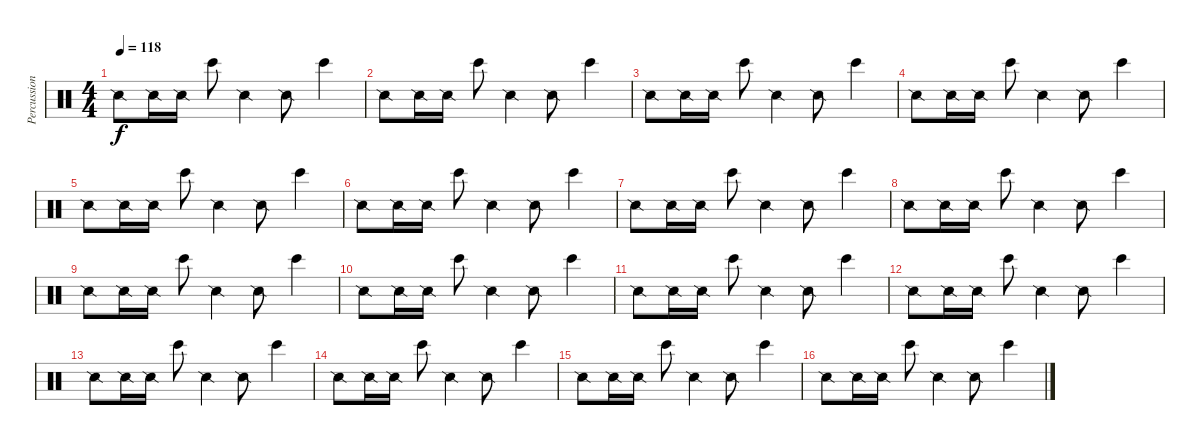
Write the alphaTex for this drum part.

\track ("Percussion" "Percussion") {instrument percussion}
\staff {score}
\articulation defaults
\ts (4 4)
\tempo 118
\clef neutral
\ks c "Snare (side stick) 2".8{dy f} "Snare (side stick) 2".16 "Snare (side stick) 2".16 "Bongo High (hit)".8 "Snare (side stick) 2".4 "Snare (side stick) 2".8 "Bongo High (hit)".4
|
"Snare (side stick) 2".8 "Snare (side stick) 2".16 "Snare (side stick) 2".16 "Bongo High (hit)".8 "Snare (side stick) 2".4 "Snare (side stick) 2".8 "Bongo High (hit)".4 |
"Snare (side stick) 2".8 "Snare (side stick) 2".16 "Snare (side stick) 2".16 "Bongo High (hit)".8 "Snare (side stick) 2".4 "Snare (side stick) 2".8 "Bongo High (hit)".4 |
"Snare (side stick) 2".8 "Snare (side stick) 2".16 "Snare (side stick) 2".16 "Bongo High (hit)".8 "Snare (side stick) 2".4 "Snare (side stick) 2".8 "Bongo High (hit)".4 |
"Snare (side stick) 2".8 "Snare (side stick) 2".16 "Snare (side stick) 2".16 "Bongo High (hit)".8 "Snare (side stick) 2".4 "Snare (side stick) 2".8 "Bongo High (hit)".4 |
"Snare (side stick) 2".8 "Snare (side stick) 2".16 "Snare (side stick) 2".16 "Bongo High (hit)".8 "Snare (side stick) 2".4 "Snare (side stick) 2".8 "Bongo High (hit)".4 |
"Snare (side stick) 2".8 "Snare (side stick) 2".16 "Snare (side stick) 2".16 "Bongo High (hit)".8 "Snare (side stick) 2".4 "Snare (side stick) 2".8 "Bongo High (hit)".4 |
"Snare (side stick) 2".8 "Snare (side stick) 2".16 "Snare (side stick) 2".16 "Bongo High (hit)".8 "Snare (side stick) 2".4 "Snare (side stick) 2".8 "Bongo High (hit)".4 |
"Snare (side stick) 2".8 "Snare (side stick) 2".16 "Snare (side stick) 2".16 "Bongo High (hit)".8 "Snare (side stick) 2".4 "Snare (side stick) 2".8 "Bongo High (hit)".4 |
"Snare (side stick) 2".8 "Snare (side stick) 2".16 "Snare (side stick) 2".16 "Bongo High (hit)".8 "Snare (side stick) 2".4 "Snare (side stick) 2".8 "Bongo High (hit)".4 |
"Snare (side stick) 2".8 "Snare (side stick) 2".16 "Snare (side stick) 2".16 "Bongo High (hit)".8 "Snare (side stick) 2".4 "Snare (side stick) 2".8 "Bongo High (hit)".4 |
"Snare (side stick) 2".8 "Snare (side stick) 2".16 "Snare (side stick) 2".16 "Bongo High (hit)".8 "Snare (side stick) 2".4 "Snare (side stick) 2".8 "Bongo High (hit)".4 |
"Snare (side stick) 2".8 "Snare (side stick) 2".16 "Snare (side stick) 2".16 "Bongo High (hit)".8 "Snare (side stick) 2".4 "Snare (side stick) 2".8 "Bongo High (hit)".4 |
"Snare (side stick) 2".8 "Snare (side stick) 2".16 "Snare (side stick) 2".16 "Bongo High (hit)".8 "Snare (side stick) 2".4 "Snare (side stick) 2".8 "Bongo High (hit)".4 |
"Snare (side stick) 2".8 "Snare (side stick) 2".16 "Snare (side stick) 2".16 "Bongo High (hit)".8 "Snare (side stick) 2".4 "Snare (side stick) 2".8 "Bongo High (hit)".4 |
"Snare (side stick) 2".8 "Snare (side stick) 2".16 "Snare (side stick) 2".16 "Bongo High (hit)".8 "Snare (side stick) 2".4 "Snare (side stick) 2".8 "Bongo High (hit)".4
